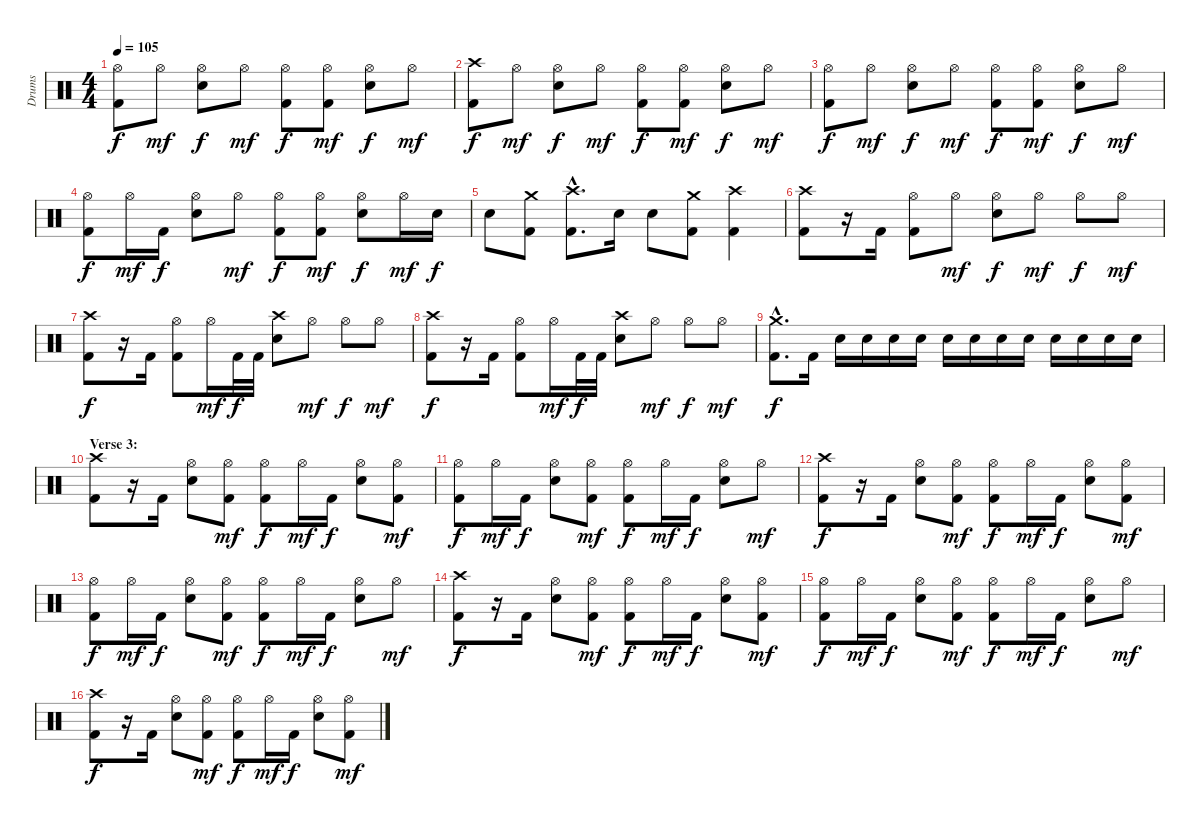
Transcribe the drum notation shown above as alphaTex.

\track ("Drums" "Drums") {instrument percussion}
\staff {score}
\articulation defaults
\ts (4 4)
\tempo 105
\clef neutral
\ks c
("Hi-Hat (open)" "Kick (hit) 2").8{dy f} "Hi-Hat (open)".8{dy mf} ("Hi-Hat (open)" "Electric Snare (hit)").8{dy f} "Hi-Hat (open)".8{dy mf} ("Hi-Hat (open)" "Kick (hit) 2").8{dy f} ("Hi-Hat (open)" "Kick (hit) 2").8{dy mf} ("Hi-Hat (open)" "Electric Snare (hit)").8{dy f} "Hi-Hat (open)".8{dy mf} |
("Crash high (hit)" "Kick (hit) 2").8{dy f} "Hi-Hat (open)".8{dy mf} ("Hi-Hat (open)" "Electric Snare (hit)").8{dy f} "Hi-Hat (open)".8{dy mf} ("Hi-Hat (open)" "Kick (hit) 2").8{dy f} ("Hi-Hat (open)" "Kick (hit) 2").8{dy mf} ("Hi-Hat (open)" "Electric Snare (hit)").8{dy f} "Hi-Hat (open)".8{dy mf} |
("Hi-Hat (open)" "Kick (hit) 2").8{dy f} "Hi-Hat (open)".8{dy mf} ("Hi-Hat (open)" "Electric Snare (hit)").8{dy f} "Hi-Hat (open)".8{dy mf} ("Hi-Hat (open)" "Kick (hit) 2").8{dy f} ("Hi-Hat (open)" "Kick (hit) 2").8{dy mf} ("Hi-Hat (open)" "Electric Snare (hit)").8{dy f} "Hi-Hat (open)".8{dy mf} |
("Hi-Hat (open)" "Kick (hit) 2").8{dy f} "Hi-Hat (open)".16{dy mf} "Kick (hit) 2".16{dy f} ("Hi-Hat (open)" "Electric Snare (hit)").8 "Hi-Hat (open)".8{dy mf} ("Hi-Hat (open)" "Kick (hit) 2").8{dy f} ("Hi-Hat (open)" "Kick (hit) 2").8{dy mf} ("Hi-Hat (open)" "Electric Snare (hit)").8{dy f} "Hi-Hat (open)".16{dy mf} "Electric Snare (hit)".16{dy f} |
"Electric Snare (hit)".8 ("Crash medium (hit)" "Kick (hit) 2").8 ("Crash high (hit)"{hac} "Kick (hit) 2"{hac}).8{d} "Electric Snare (hit)".16 "Electric Snare (hit)".8 ("Crash medium (hit)" "Kick (hit) 2").8 ("Crash high (hit)" "Kick (hit) 2").4 |
("Crash high (hit)" "Kick (hit) 2").8 r.16 "Kick (hit) 2".16 ("Hi-Hat (open)" "Kick (hit) 2").8 "Hi-Hat (open)".8{dy mf} ("Hi-Hat (open)" "Electric Snare (hit)").8{dy f} "Hi-Hat (open)".8{dy mf} "Hi-Hat (open)".8{dy f} "Hi-Hat (open)".8{dy mf} |
("Crash high (hit)" "Kick (hit) 2").8{dy f} r.16 "Kick (hit) 2".16 ("Hi-Hat (open)" "Kick (hit) 2").8 "Hi-Hat (open)".16{dy mf} "Kick (hit) 2".32{dy f} "Kick (hit) 2".32 ("Crash high (hit)" "Electric Snare (hit)").8 "Hi-Hat (open)".8{dy mf} "Hi-Hat (open)".8{dy f} "Hi-Hat (open)".8{dy mf} |
("Crash high (hit)" "Kick (hit) 2").8{dy f} r.16 "Kick (hit) 2".16 ("Hi-Hat (open)" "Kick (hit) 2").8 "Hi-Hat (open)".16{dy mf} "Kick (hit) 2".32{dy f} "Kick (hit) 2".32 ("Crash high (hit)" "Electric Snare (hit)").8 "Hi-Hat (open)".8{dy mf} "Hi-Hat (open)".8{dy f} "Hi-Hat (open)".8{dy mf} |
("Crash medium (hit)"{hac} "Kick (hit) 2"{hac}).8{d dy f} "Kick (hit) 2".16 "Electric Snare (hit)".16 "Electric Snare (hit)".16 "Electric Snare (hit)".16 "Electric Snare (hit)".16 "Electric Snare (hit)".16 "Electric Snare (hit)".16 "Electric Snare (hit)".16 "Electric Snare (hit)".16 "Electric Snare (hit)".16 "Electric Snare (hit)".16 "Electric Snare (hit)".16 "Electric Snare (hit)".16 |
\section ("" "Verse 3:")
("Crash high (hit)" "Kick (hit) 2").8 r.16 "Kick (hit) 2".16 ("Hi-Hat (open)" "Electric Snare (hit)").8 ("Hi-Hat (open)" "Kick (hit) 2").8{dy mf} ("Hi-Hat (open)" "Kick (hit) 2").8{dy f} "Hi-Hat (open)".16{dy mf} "Kick (hit) 2".16{dy f} ("Hi-Hat (open)" "Electric Snare (hit)").8 ("Hi-Hat (open)" "Kick (hit) 2").8{dy mf} |
("Hi-Hat (open)" "Kick (hit) 2").8{dy f} "Hi-Hat (open)".16{dy mf} "Kick (hit) 2".16{dy f} ("Hi-Hat (open)" "Electric Snare (hit)").8 ("Hi-Hat (open)" "Kick (hit) 2").8{dy mf} ("Hi-Hat (open)" "Kick (hit) 2").8{dy f} "Hi-Hat (open)".16{dy mf} "Kick (hit) 2".16{dy f} ("Hi-Hat (open)" "Electric Snare (hit)").8 "Hi-Hat (open)".8{dy mf} |
("Crash high (hit)" "Kick (hit) 2").8{dy f} r.16 "Kick (hit) 2".16 ("Hi-Hat (open)" "Electric Snare (hit)").8 ("Hi-Hat (open)" "Kick (hit) 2").8{dy mf} ("Hi-Hat (open)" "Kick (hit) 2").8{dy f} "Hi-Hat (open)".16{dy mf} "Kick (hit) 2".16{dy f} ("Hi-Hat (open)" "Electric Snare (hit)").8 ("Hi-Hat (open)" "Kick (hit) 2").8{dy mf} |
("Hi-Hat (open)" "Kick (hit) 2").8{dy f} "Hi-Hat (open)".16{dy mf} "Kick (hit) 2".16{dy f} ("Hi-Hat (open)" "Electric Snare (hit)").8 ("Hi-Hat (open)" "Kick (hit) 2").8{dy mf} ("Hi-Hat (open)" "Kick (hit) 2").8{dy f} "Hi-Hat (open)".16{dy mf} "Kick (hit) 2".16{dy f} ("Hi-Hat (open)" "Electric Snare (hit)").8 "Hi-Hat (open)".8{dy mf} |
("Crash high (hit)" "Kick (hit) 2").8{dy f} r.16 "Kick (hit) 2".16 ("Hi-Hat (open)" "Electric Snare (hit)").8 ("Hi-Hat (open)" "Kick (hit) 2").8{dy mf} ("Hi-Hat (open)" "Kick (hit) 2").8{dy f} "Hi-Hat (open)".16{dy mf} "Kick (hit) 2".16{dy f} ("Hi-Hat (open)" "Electric Snare (hit)").8 ("Hi-Hat (open)" "Kick (hit) 2").8{dy mf} |
("Hi-Hat (open)" "Kick (hit) 2").8{dy f} "Hi-Hat (open)".16{dy mf} "Kick (hit) 2".16{dy f} ("Hi-Hat (open)" "Electric Snare (hit)").8 ("Hi-Hat (open)" "Kick (hit) 2").8{dy mf} ("Hi-Hat (open)" "Kick (hit) 2").8{dy f} "Hi-Hat (open)".16{dy mf} "Kick (hit) 2".16{dy f} ("Hi-Hat (open)" "Electric Snare (hit)").8 "Hi-Hat (open)".8{dy mf} |
("Crash high (hit)" "Kick (hit) 2").8{dy f} r.16 "Kick (hit) 2".16 ("Hi-Hat (open)" "Electric Snare (hit)").8 ("Hi-Hat (open)" "Kick (hit) 2").8{dy mf} ("Hi-Hat (open)" "Kick (hit) 2").8{dy f} "Hi-Hat (open)".16{dy mf} "Kick (hit) 2".16{dy f} ("Hi-Hat (open)" "Electric Snare (hit)").8 ("Hi-Hat (open)" "Kick (hit) 2").8{dy mf}
